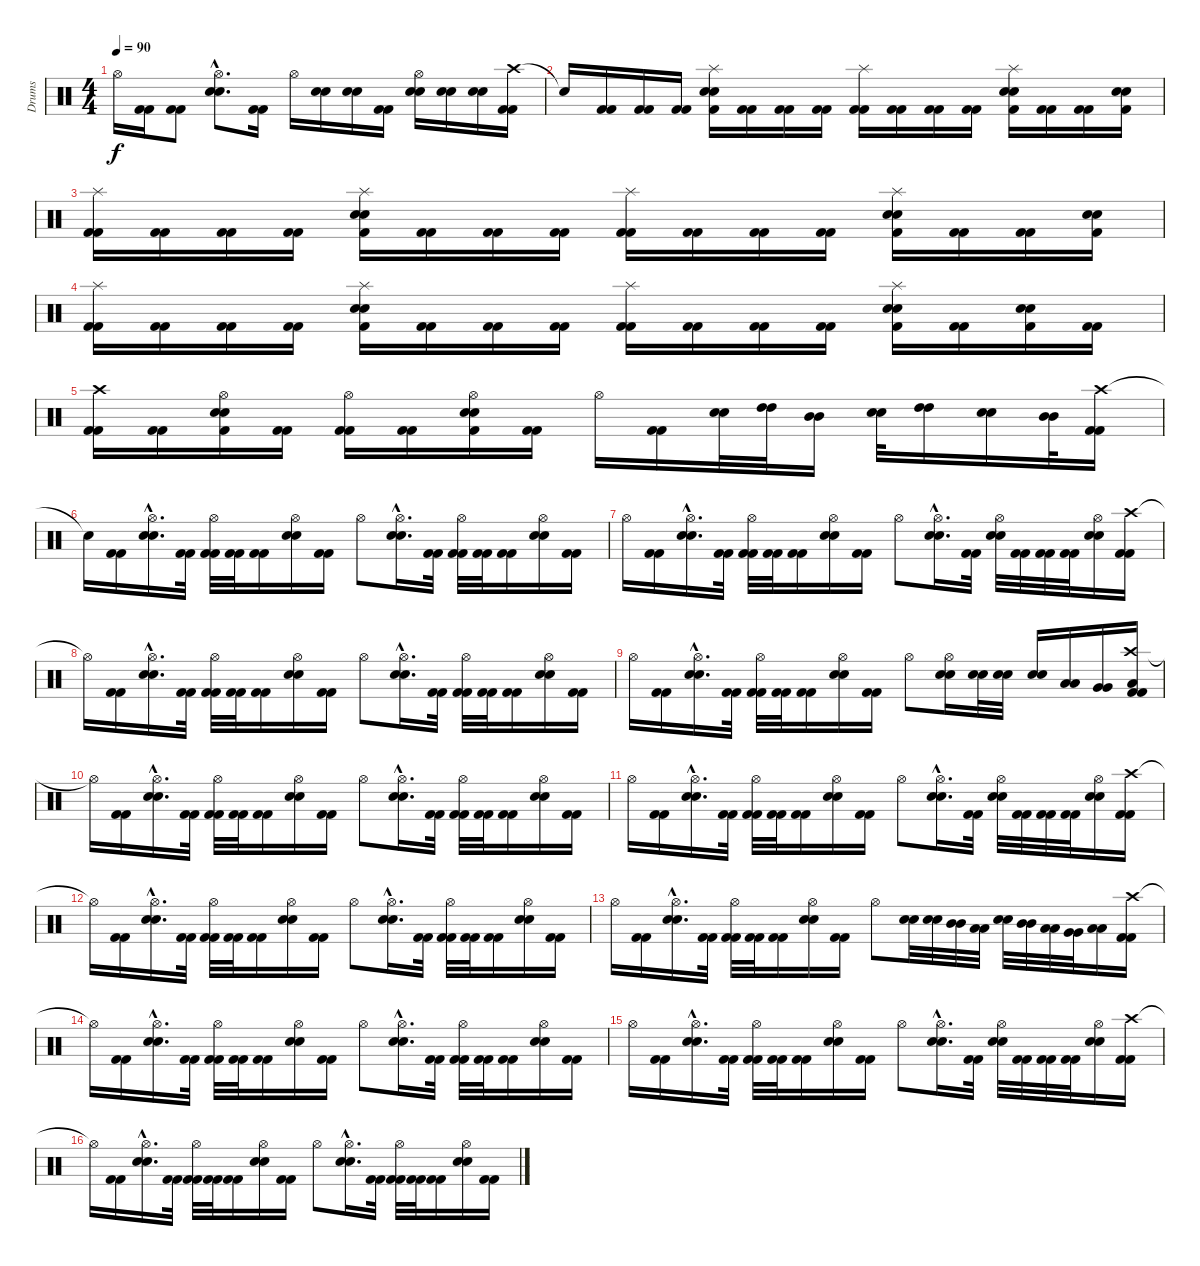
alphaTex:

\track ("Drums" "Drums") {instrument percussion}
\staff {score}
\articulation defaults
\ts (4 4)
\tempo 90
\clef neutral
\ks c "Hi-Hat (open)".16{dy f}
("Kick (hit) 2" "Kick (hit) 2").16 ("Kick (hit) 2" "Kick (hit) 2").8 ("Hi-Hat (open)"{hac} "Electric Snare (hit)"{hac} "Snare (hit) 2"{hac}).8{d} ("Kick (hit) 2" "Kick (hit) 2").16 "Hi-Hat (open)".16 ("Electric Snare (hit)" "Snare (hit) 2").16 ("Electric Snare (hit)" "Snare (hit) 2").16 ("Kick (hit) 2" "Kick (hit) 2").16 ("Hi-Hat (open)" "Electric Snare (hit)" "Snare (hit) 2").16 ("Electric Snare (hit)" "Snare (hit) 2").16 ("Electric Snare (hit)" "Snare (hit) 2").16 ("Crash high (hit)" "Kick (hit) 2" "Kick (hit) 2").16 |
"Snare (hit)"{t}.16 ("Kick (hit) 2" "Kick (hit) 2").16 ("Kick (hit) 2" "Kick (hit) 2").16 ("Kick (hit) 2" "Kick (hit) 2").16 ("Splash (hit)" "Electric Snare (hit)" "Snare (hit) 2" "Kick (hit) 2").16 ("Kick (hit) 2" "Kick (hit) 2").16 ("Kick (hit) 2" "Kick (hit) 2").16 ("Kick (hit) 2" "Kick (hit) 2").16 ("Splash (hit)" "Kick (hit) 2" "Kick (hit) 2").16 ("Kick (hit) 2" "Kick (hit) 2").16 ("Kick (hit) 2" "Kick (hit) 2").16 ("Kick (hit) 2" "Kick (hit) 2").16 ("Splash (hit)" "Electric Snare (hit)" "Snare (hit) 2" "Kick (hit) 2").16 ("Kick (hit) 2" "Kick (hit) 2").16 ("Kick (hit) 2" "Kick (hit) 2").16 ("Electric Snare (hit)" "Snare (hit) 2" "Kick (hit) 2").16 |
("Splash (hit)" "Kick (hit) 2" "Kick (hit) 2").16 ("Kick (hit) 2" "Kick (hit) 2").16 ("Kick (hit) 2" "Kick (hit) 2").16 ("Kick (hit) 2" "Kick (hit) 2").16 ("Splash (hit)" "Electric Snare (hit)" "Snare (hit) 2" "Kick (hit) 2").16 ("Kick (hit) 2" "Kick (hit) 2").16 ("Kick (hit) 2" "Kick (hit) 2").16 ("Kick (hit) 2" "Kick (hit) 2").16 ("Splash (hit)" "Kick (hit) 2" "Kick (hit) 2").16 ("Kick (hit) 2" "Kick (hit) 2").16 ("Kick (hit) 2" "Kick (hit) 2").16 ("Kick (hit) 2" "Kick (hit) 2").16 ("Splash (hit)" "Electric Snare (hit)" "Snare (hit) 2" "Kick (hit) 2").16 ("Kick (hit) 2" "Kick (hit) 2").16 ("Kick (hit) 2" "Kick (hit) 2").16 ("Electric Snare (hit)" "Snare (hit) 2" "Kick (hit) 2").16 |
("Splash (hit)" "Kick (hit) 2" "Kick (hit) 2").16 ("Kick (hit) 2" "Kick (hit) 2").16 ("Kick (hit) 2" "Kick (hit) 2").16 ("Kick (hit) 2" "Kick (hit) 2").16 ("Splash (hit)" "Electric Snare (hit)" "Snare (hit) 2" "Kick (hit) 2").16 ("Kick (hit) 2" "Kick (hit) 2").16 ("Kick (hit) 2" "Kick (hit) 2").16 ("Kick (hit) 2" "Kick (hit) 2").16 ("Splash (hit)" "Kick (hit) 2" "Kick (hit) 2").16 ("Kick (hit) 2" "Kick (hit) 2").16 ("Kick (hit) 2" "Kick (hit) 2").16 ("Kick (hit) 2" "Kick (hit) 2").16 ("Splash (hit)" "Electric Snare (hit)" "Snare (hit) 2" "Kick (hit) 2").16 ("Kick (hit) 2" "Kick (hit) 2").16 ("Electric Snare (hit)" "Snare (hit) 2" "Kick (hit) 2").16 ("Kick (hit) 2" "Kick (hit) 2").16 |
("Crash high (hit)" "Kick (hit) 2" "Kick (hit) 2").16 ("Kick (hit) 2" "Kick (hit) 2").16 ("Hi-Hat (open)" "Electric Snare (hit)" "Snare (hit) 2" "Kick (hit) 2").16 ("Kick (hit) 2" "Kick (hit) 2").16 ("Hi-Hat (open)" "Kick (hit) 2" "Kick (hit) 2").16 ("Kick (hit) 2" "Kick (hit) 2").16 ("Hi-Hat (open)" "Electric Snare (hit)" "Snare (hit) 2" "Kick (hit) 2").16 ("Kick (hit) 2" "Kick (hit) 2").16 "Hi-Hat (open)".16 ("Kick (hit) 2" "Kick (hit) 2").16 ("Electric Snare (hit)" "Snare (hit) 2").32 ("High Tom (hit)" "High Tom (hit)").32 ("Mid Tom (hit)" "Mid Tom (hit)").16 ("Electric Snare (hit)" "Snare (hit) 2").32 ("High Tom (hit)" "High Tom (hit)").16 ("Electric Snare (hit)" "Snare (hit) 2").16 ("Mid Tom (hit)" "Mid Tom (hit)").32 ("Crash high (hit)" "Kick (hit) 2" "Kick (hit) 2").16 |
"Snare (hit)"{t}.16 ("Kick (hit) 2" "Kick (hit) 2").16 ("Hi-Hat (open)"{hac} "Electric Snare (hit)"{hac} "Snare (hit) 2"{hac}).16{d} ("Kick (hit) 2" "Kick (hit) 2").32 ("Hi-Hat (open)" "Kick (hit) 2" "Kick (hit) 2").32 ("Kick (hit) 2" "Kick (hit) 2").32 ("Kick (hit) 2" "Kick (hit) 2").16 ("Hi-Hat (open)" "Electric Snare (hit)" "Snare (hit) 2").16 ("Kick (hit) 2" "Kick (hit) 2").16 "Hi-Hat (open)".8 ("Hi-Hat (open)"{hac} "Electric Snare (hit)"{hac} "Snare (hit) 2"{hac}).16{d} ("Kick (hit) 2" "Kick (hit) 2").32 ("Hi-Hat (open)" "Kick (hit) 2" "Kick (hit) 2").32 ("Kick (hit) 2" "Kick (hit) 2").32 ("Kick (hit) 2" "Kick (hit) 2").16 ("Hi-Hat (open)" "Electric Snare (hit)" "Snare (hit) 2").16 ("Kick (hit) 2" "Kick (hit) 2").16 |
"Hi-Hat (open)".16 ("Kick (hit) 2" "Kick (hit) 2").16 ("Hi-Hat (open)"{hac} "Electric Snare (hit)"{hac} "Snare (hit) 2"{hac}).16{d} ("Kick (hit) 2" "Kick (hit) 2").32 ("Hi-Hat (open)" "Kick (hit) 2" "Kick (hit) 2").32 ("Kick (hit) 2" "Kick (hit) 2").32 ("Kick (hit) 2" "Kick (hit) 2").16 ("Hi-Hat (open)" "Electric Snare (hit)" "Snare (hit) 2").16 ("Kick (hit) 2" "Kick (hit) 2").16 "Hi-Hat (open)".8 ("Hi-Hat (open)"{hac} "Electric Snare (hit)"{hac} "Snare (hit) 2"{hac}).16{d} ("Kick (hit) 2" "Kick (hit) 2").32 ("Hi-Hat (open)" "Electric Snare (hit)" "Snare (hit) 2").32 ("Kick (hit) 2" "Kick (hit) 2").32 ("Kick (hit) 2" "Kick (hit) 2").32 ("Kick (hit) 2" "Kick (hit) 2").32 ("Hi-Hat (open)" "Electric Snare (hit)" "Snare (hit) 2").16 ("Crash high (hit)" "Kick (hit) 2" "Kick (hit) 2").16 |
"Hi-Hat (open)"{t}.16 ("Kick (hit) 2" "Kick (hit) 2").16 ("Hi-Hat (open)"{hac} "Electric Snare (hit)"{hac} "Snare (hit) 2"{hac}).16{d} ("Kick (hit) 2" "Kick (hit) 2").32 ("Hi-Hat (open)" "Kick (hit) 2" "Kick (hit) 2").32 ("Kick (hit) 2" "Kick (hit) 2").32 ("Kick (hit) 2" "Kick (hit) 2").16 ("Hi-Hat (open)" "Electric Snare (hit)" "Snare (hit) 2").16 ("Kick (hit) 2" "Kick (hit) 2").16 "Hi-Hat (open)".8 ("Hi-Hat (open)"{hac} "Electric Snare (hit)"{hac} "Snare (hit) 2"{hac}).16{d} ("Kick (hit) 2" "Kick (hit) 2").32 ("Hi-Hat (open)" "Kick (hit) 2" "Kick (hit) 2").32 ("Kick (hit) 2" "Kick (hit) 2").32 ("Kick (hit) 2" "Kick (hit) 2").16 ("Hi-Hat (open)" "Electric Snare (hit)" "Snare (hit) 2").16 ("Kick (hit) 2" "Kick (hit) 2").16 |
"Hi-Hat (open)".16 ("Kick (hit) 2" "Kick (hit) 2").16 ("Hi-Hat (open)"{hac} "Electric Snare (hit)"{hac} "Snare (hit) 2"{hac}).16{d} ("Kick (hit) 2" "Kick (hit) 2").32 ("Hi-Hat (open)" "Kick (hit) 2" "Kick (hit) 2").32 ("Kick (hit) 2" "Kick (hit) 2").32 ("Kick (hit) 2" "Kick (hit) 2").16 ("Hi-Hat (open)" "Electric Snare (hit)" "Snare (hit) 2").16 ("Kick (hit) 2" "Kick (hit) 2").16 "Hi-Hat (open)".8 ("Hi-Hat (open)" "Electric Snare (hit)" "Snare (hit) 2").16 ("Electric Snare (hit)" "Snare (hit) 2").32 ("Electric Snare (hit)" "Snare (hit) 2").32 ("Electric Snare (hit)" "Snare (hit) 2").16 ("Low Tom (hit)" "Low Tom (hit)").16 ("Very Low Tom (hit)" "Very Low Tom (hit)").16 ("Crash high (hit)" "Low Floor Tom (hit)" "Kick (hit) 2" "Kick (hit) 2").16 |
"Hi-Hat (open)"{t}.16 ("Kick (hit) 2" "Kick (hit) 2").16 ("Hi-Hat (open)"{hac} "Electric Snare (hit)"{hac} "Snare (hit) 2"{hac}).16{d} ("Kick (hit) 2" "Kick (hit) 2").32 ("Hi-Hat (open)" "Kick (hit) 2" "Kick (hit) 2").32 ("Kick (hit) 2" "Kick (hit) 2").32 ("Kick (hit) 2" "Kick (hit) 2").16 ("Hi-Hat (open)" "Electric Snare (hit)" "Snare (hit) 2").16 ("Kick (hit) 2" "Kick (hit) 2").16 "Hi-Hat (open)".8 ("Hi-Hat (open)"{hac} "Electric Snare (hit)"{hac} "Snare (hit) 2"{hac}).16{d} ("Kick (hit) 2" "Kick (hit) 2").32 ("Hi-Hat (open)" "Kick (hit) 2" "Kick (hit) 2").32 ("Kick (hit) 2" "Kick (hit) 2").32 ("Kick (hit) 2" "Kick (hit) 2").16 ("Hi-Hat (open)" "Electric Snare (hit)" "Snare (hit) 2").16 ("Kick (hit) 2" "Kick (hit) 2").16 |
"Hi-Hat (open)".16 ("Kick (hit) 2" "Kick (hit) 2").16 ("Hi-Hat (open)"{hac} "Electric Snare (hit)"{hac} "Snare (hit) 2"{hac}).16{d} ("Kick (hit) 2" "Kick (hit) 2").32 ("Hi-Hat (open)" "Kick (hit) 2" "Kick (hit) 2").32 ("Kick (hit) 2" "Kick (hit) 2").32 ("Kick (hit) 2" "Kick (hit) 2").16 ("Hi-Hat (open)" "Electric Snare (hit)" "Snare (hit) 2").16 ("Kick (hit) 2" "Kick (hit) 2").16 "Hi-Hat (open)".8 ("Hi-Hat (open)"{hac} "Electric Snare (hit)"{hac} "Snare (hit) 2"{hac}).16{d} ("Kick (hit) 2" "Kick (hit) 2").32 ("Hi-Hat (open)" "Electric Snare (hit)" "Snare (hit) 2").32 ("Kick (hit) 2" "Kick (hit) 2").32 ("Kick (hit) 2" "Kick (hit) 2").32 ("Kick (hit) 2" "Kick (hit) 2").32 ("Hi-Hat (open)" "Electric Snare (hit)" "Snare (hit) 2").16 ("Crash high (hit)" "Kick (hit) 2" "Kick (hit) 2").16 |
"Hi-Hat (open)"{t}.16 ("Kick (hit) 2" "Kick (hit) 2").16 ("Hi-Hat (open)"{hac} "Electric Snare (hit)"{hac} "Snare (hit) 2"{hac}).16{d} ("Kick (hit) 2" "Kick (hit) 2").32 ("Hi-Hat (open)" "Kick (hit) 2" "Kick (hit) 2").32 ("Kick (hit) 2" "Kick (hit) 2").32 ("Kick (hit) 2" "Kick (hit) 2").16 ("Hi-Hat (open)" "Electric Snare (hit)" "Snare (hit) 2").16 ("Kick (hit) 2" "Kick (hit) 2").16 "Hi-Hat (open)".8 ("Hi-Hat (open)"{hac} "Electric Snare (hit)"{hac} "Snare (hit) 2"{hac}).16{d} ("Kick (hit) 2" "Kick (hit) 2").32 ("Hi-Hat (open)" "Kick (hit) 2" "Kick (hit) 2").32 ("Kick (hit) 2" "Kick (hit) 2").32 ("Kick (hit) 2" "Kick (hit) 2").16 ("Hi-Hat (open)" "Electric Snare (hit)" "Snare (hit) 2").16 ("Kick (hit) 2" "Kick (hit) 2").16 |
"Hi-Hat (open)".16 ("Kick (hit) 2" "Kick (hit) 2").16 ("Hi-Hat (open)"{hac} "Electric Snare (hit)"{hac} "Snare (hit) 2"{hac}).16{d} ("Kick (hit) 2" "Kick (hit) 2").32 ("Hi-Hat (open)" "Kick (hit) 2" "Kick (hit) 2").32 ("Kick (hit) 2" "Kick (hit) 2").32 ("Kick (hit) 2" "Kick (hit) 2").16 ("Hi-Hat (open)" "Electric Snare (hit)" "Snare (hit) 2").16 ("Kick (hit) 2" "Kick (hit) 2").16 "Hi-Hat (open)".8 ("Electric Snare (hit)" "Snare (hit) 2").32 ("Electric Snare (hit)" "Snare (hit) 2").32 ("Mid Tom (hit)" "Mid Tom (hit)").32 ("Low Tom (hit)" "Low Tom (hit)").32 ("Electric Snare (hit)" "Snare (hit) 2").32 ("Mid Tom (hit)" "Mid Tom (hit)").32 ("Low Tom (hit)" "Low Tom (hit)").32 ("Very Low Tom (hit)" "Very Low Tom (hit)").32 ("Low Floor Tom (hit)" "Low Floor Tom (hit)").16 ("Crash high (hit)" "Kick (hit) 2" "Kick (hit) 2").16 |
"Hi-Hat (open)"{t}.16 ("Kick (hit) 2" "Kick (hit) 2").16 ("Hi-Hat (open)"{hac} "Electric Snare (hit)"{hac} "Snare (hit) 2"{hac}).16{d} ("Kick (hit) 2" "Kick (hit) 2").32 ("Hi-Hat (open)" "Kick (hit) 2" "Kick (hit) 2").32 ("Kick (hit) 2" "Kick (hit) 2").32 ("Kick (hit) 2" "Kick (hit) 2").16 ("Hi-Hat (open)" "Electric Snare (hit)" "Snare (hit) 2").16 ("Kick (hit) 2" "Kick (hit) 2").16 "Hi-Hat (open)".8 ("Hi-Hat (open)"{hac} "Electric Snare (hit)"{hac} "Snare (hit) 2"{hac}).16{d} ("Kick (hit) 2" "Kick (hit) 2").32 ("Hi-Hat (open)" "Kick (hit) 2" "Kick (hit) 2").32 ("Kick (hit) 2" "Kick (hit) 2").32 ("Kick (hit) 2" "Kick (hit) 2").16 ("Hi-Hat (open)" "Electric Snare (hit)" "Snare (hit) 2").16 ("Kick (hit) 2" "Kick (hit) 2").16 |
"Hi-Hat (open)".16 ("Kick (hit) 2" "Kick (hit) 2").16 ("Hi-Hat (open)"{hac} "Electric Snare (hit)"{hac} "Snare (hit) 2"{hac}).16{d} ("Kick (hit) 2" "Kick (hit) 2").32 ("Hi-Hat (open)" "Kick (hit) 2" "Kick (hit) 2").32 ("Kick (hit) 2" "Kick (hit) 2").32 ("Kick (hit) 2" "Kick (hit) 2").16 ("Hi-Hat (open)" "Electric Snare (hit)" "Snare (hit) 2").16 ("Kick (hit) 2" "Kick (hit) 2").16 "Hi-Hat (open)".8 ("Hi-Hat (open)"{hac} "Electric Snare (hit)"{hac} "Snare (hit) 2"{hac}).16{d} ("Kick (hit) 2" "Kick (hit) 2").32 ("Hi-Hat (open)" "Electric Snare (hit)" "Snare (hit) 2").32 ("Kick (hit) 2" "Kick (hit) 2").32 ("Kick (hit) 2" "Kick (hit) 2").32 ("Kick (hit) 2" "Kick (hit) 2").32 ("Hi-Hat (open)" "Electric Snare (hit)" "Snare (hit) 2").16 ("Crash high (hit)" "Kick (hit) 2" "Kick (hit) 2").16 |
"Hi-Hat (open)"{t}.16 ("Kick (hit) 2" "Kick (hit) 2").16 ("Hi-Hat (open)"{hac} "Electric Snare (hit)"{hac} "Snare (hit) 2"{hac}).16{d} ("Kick (hit) 2" "Kick (hit) 2").32 ("Hi-Hat (open)" "Kick (hit) 2" "Kick (hit) 2").32 ("Kick (hit) 2" "Kick (hit) 2").32 ("Kick (hit) 2" "Kick (hit) 2").16 ("Hi-Hat (open)" "Electric Snare (hit)" "Snare (hit) 2").16 ("Kick (hit) 2" "Kick (hit) 2").16 "Hi-Hat (open)".8 ("Hi-Hat (open)"{hac} "Electric Snare (hit)"{hac} "Snare (hit) 2"{hac}).16{d} ("Kick (hit) 2" "Kick (hit) 2").32 ("Hi-Hat (open)" "Kick (hit) 2" "Kick (hit) 2").32 ("Kick (hit) 2" "Kick (hit) 2").32 ("Kick (hit) 2" "Kick (hit) 2").16 ("Hi-Hat (open)" "Electric Snare (hit)" "Snare (hit) 2").16 ("Kick (hit) 2" "Kick (hit) 2").16
